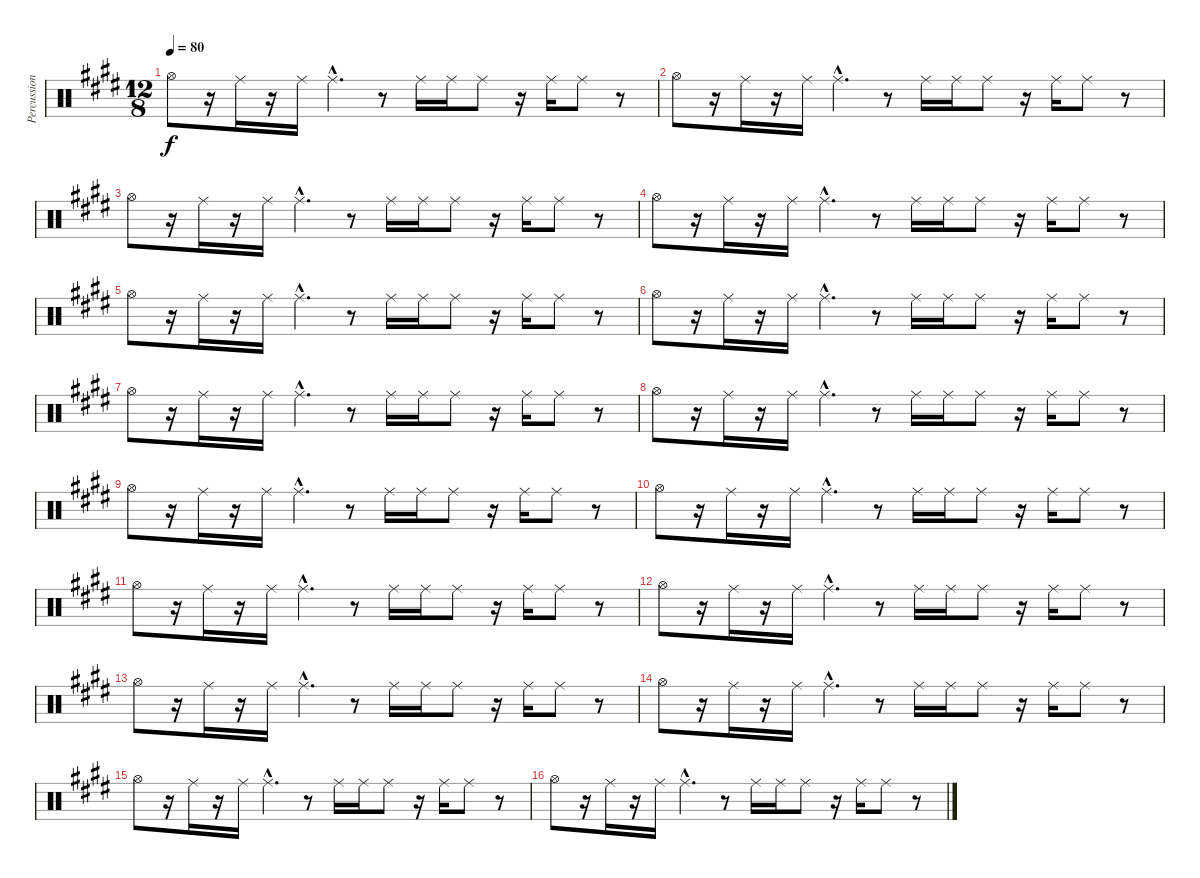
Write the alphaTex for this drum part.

\track ("Percussioni" "Percussion") {instrument percussion}
\staff {score}
\articulation defaults
\ts (12 8)
\tempo 80
\clef neutral
\ks e "Hi-Hat (open)".8{dy f}
r.16 "Ride (middle)".16 r.16 "Ride (middle)".16 "Ride (middle)"{hac}.4{d} r.8 "Ride (middle)".16 "Ride (middle)".16 "Ride (middle)".8 r.16 "Ride (middle)".16 "Ride (middle)".8 r.8 |
"Hi-Hat (open)".8 r.16 "Ride (middle)".16 r.16 "Ride (middle)".16 "Ride (middle)"{hac}.4{d} r.8 "Ride (middle)".16 "Ride (middle)".16 "Ride (middle)".8 r.16 "Ride (middle)".16 "Ride (middle)".8 r.8 |
"Hi-Hat (open)".8 r.16 "Ride (middle)".16 r.16 "Ride (middle)".16 "Ride (middle)"{hac}.4{d} r.8 "Ride (middle)".16 "Ride (middle)".16 "Ride (middle)".8 r.16 "Ride (middle)".16 "Ride (middle)".8 r.8 |
"Hi-Hat (open)".8 r.16 "Ride (middle)".16 r.16 "Ride (middle)".16 "Ride (middle)"{hac}.4{d} r.8 "Ride (middle)".16 "Ride (middle)".16 "Ride (middle)".8 r.16 "Ride (middle)".16 "Ride (middle)".8 r.8 |
"Hi-Hat (open)".8 r.16 "Ride (middle)".16 r.16 "Ride (middle)".16 "Ride (middle)"{hac}.4{d} r.8 "Ride (middle)".16 "Ride (middle)".16 "Ride (middle)".8 r.16 "Ride (middle)".16 "Ride (middle)".8 r.8 |
"Hi-Hat (open)".8 r.16 "Ride (middle)".16 r.16 "Ride (middle)".16 "Ride (middle)"{hac}.4{d} r.8 "Ride (middle)".16 "Ride (middle)".16 "Ride (middle)".8 r.16 "Ride (middle)".16 "Ride (middle)".8 r.8 |
"Hi-Hat (open)".8 r.16 "Ride (middle)".16 r.16 "Ride (middle)".16 "Ride (middle)"{hac}.4{d} r.8 "Ride (middle)".16 "Ride (middle)".16 "Ride (middle)".8 r.16 "Ride (middle)".16 "Ride (middle)".8 r.8 |
"Hi-Hat (open)".8 r.16 "Ride (middle)".16 r.16 "Ride (middle)".16 "Ride (middle)"{hac}.4{d} r.8 "Ride (middle)".16 "Ride (middle)".16 "Ride (middle)".8 r.16 "Ride (middle)".16 "Ride (middle)".8 r.8 |
"Hi-Hat (open)".8 r.16 "Ride (middle)".16 r.16 "Ride (middle)".16 "Ride (middle)"{hac}.4{d} r.8 "Ride (middle)".16 "Ride (middle)".16 "Ride (middle)".8 r.16 "Ride (middle)".16 "Ride (middle)".8 r.8 |
"Hi-Hat (open)".8 r.16 "Ride (middle)".16 r.16 "Ride (middle)".16 "Ride (middle)"{hac}.4{d} r.8 "Ride (middle)".16 "Ride (middle)".16 "Ride (middle)".8 r.16 "Ride (middle)".16 "Ride (middle)".8 r.8 |
"Hi-Hat (open)".8 r.16 "Ride (middle)".16 r.16 "Ride (middle)".16 "Ride (middle)"{hac}.4{d} r.8 "Ride (middle)".16 "Ride (middle)".16 "Ride (middle)".8 r.16 "Ride (middle)".16 "Ride (middle)".8 r.8 |
"Hi-Hat (open)".8 r.16 "Ride (middle)".16 r.16 "Ride (middle)".16 "Ride (middle)"{hac}.4{d} r.8 "Ride (middle)".16 "Ride (middle)".16 "Ride (middle)".8 r.16 "Ride (middle)".16 "Ride (middle)".8 r.8 |
"Hi-Hat (open)".8 r.16 "Ride (middle)".16 r.16 "Ride (middle)".16 "Ride (middle)"{hac}.4{d} r.8 "Ride (middle)".16 "Ride (middle)".16 "Ride (middle)".8 r.16 "Ride (middle)".16 "Ride (middle)".8 r.8 |
"Hi-Hat (open)".8 r.16 "Ride (middle)".16 r.16 "Ride (middle)".16 "Ride (middle)"{hac}.4{d} r.8 "Ride (middle)".16 "Ride (middle)".16 "Ride (middle)".8 r.16 "Ride (middle)".16 "Ride (middle)".8 r.8 |
"Hi-Hat (open)".8 r.16 "Ride (middle)".16 r.16 "Ride (middle)".16 "Ride (middle)"{hac}.4{d} r.8 "Ride (middle)".16 "Ride (middle)".16 "Ride (middle)".8 r.16 "Ride (middle)".16 "Ride (middle)".8 r.8 |
"Hi-Hat (open)".8 r.16 "Ride (middle)".16 r.16 "Ride (middle)".16 "Ride (middle)"{hac}.4{d} r.8 "Ride (middle)".16 "Ride (middle)".16 "Ride (middle)".8 r.16 "Ride (middle)".16 "Ride (middle)".8 r.8
